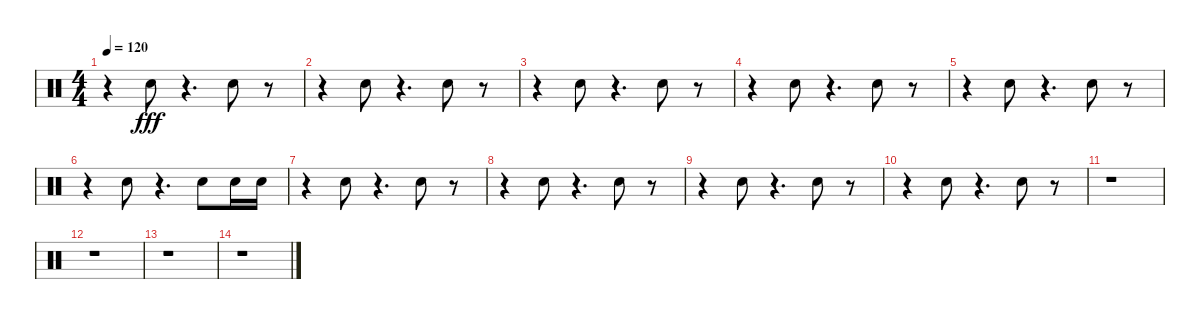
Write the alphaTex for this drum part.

\track "" {instrument percussion}
\staff {score}
\articulation defaults
\ts (4 4)
\tempo 120
\clef neutral
\ks c
r.4{dy fff} "Hand Clap (hit)".8 r.4{d} "Hand Clap (hit)".8 r.8 |
r.4 "Hand Clap (hit)".8 r.4{d} "Hand Clap (hit)".8 r.8 |
r.4 "Hand Clap (hit)".8 r.4{d} "Hand Clap (hit)".8 r.8 |
r.4 "Hand Clap (hit)".8 r.4{d} "Hand Clap (hit)".8 r.8 |
r.4 "Hand Clap (hit)".8 r.4{d} "Hand Clap (hit)".8 r.8 |
r.4 "Hand Clap (hit)".8 r.4{d} "Hand Clap (hit)".8 "Hand Clap (hit)".16 "Hand Clap (hit)".16 |
r.4 "Hand Clap (hit)".8 r.4{d} "Hand Clap (hit)".8 r.8 |
r.4 "Hand Clap (hit)".8 r.4{d} "Hand Clap (hit)".8 r.8 |
r.4 "Hand Clap (hit)".8 r.4{d} "Hand Clap (hit)".8 r.8 |
r.4 "Hand Clap (hit)".8 r.4{d} "Hand Clap (hit)".8 r.8 |
r.1 |
r.1 |
r.1 |
r.1
